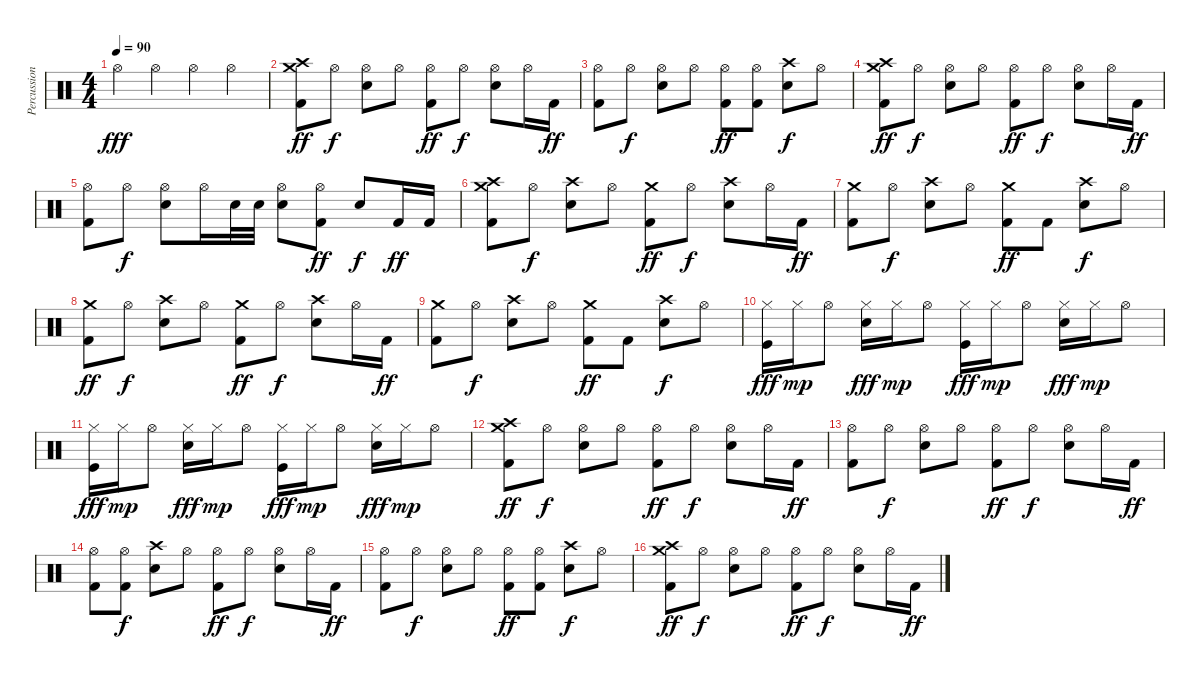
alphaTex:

\track ("Percussion" "Percussion") {instrument percussion}
\staff {score}
\articulation defaults
\ts (4 4)
\tempo 90
\clef neutral
\ks c "Hi-Hat (open)".4{dy fff} "Hi-Hat (open)".4 "Hi-Hat (open)".4 "Hi-Hat (open)".4
|
("Crash medium (hit)" "Crash high (hit)" "Kick (hit) 2").8{dy ff} "Hi-Hat (open)".8{dy f} ("Hi-Hat (open)" "Electric Snare (hit)").8 "Hi-Hat (open)".8 ("Hi-Hat (open)" "Kick (hit) 2").8{dy ff} "Hi-Hat (open)".8{dy f} ("Hi-Hat (open)" "Electric Snare (hit)").8 "Hi-Hat (open)".16 "Kick (hit) 2".16{dy ff} |
("Hi-Hat (open)" "Kick (hit) 2").8 "Hi-Hat (open)".8{dy f} ("Hi-Hat (open)" "Electric Snare (hit)").8 "Hi-Hat (open)".8 ("Hi-Hat (open)" "Kick (hit) 2").8{dy ff} ("Hi-Hat (open)" "Kick (hit) 2").8 ("Crash high (hit)" "Electric Snare (hit)").8{dy f} "Hi-Hat (open)".8 |
("Crash medium (hit)" "Crash high (hit)" "Kick (hit) 2").8{dy ff} "Hi-Hat (open)".8{dy f} ("Hi-Hat (open)" "Electric Snare (hit)").8 "Hi-Hat (open)".8 ("Hi-Hat (open)" "Kick (hit) 2").8{dy ff} "Hi-Hat (open)".8{dy f} ("Hi-Hat (open)" "Electric Snare (hit)").8 "Hi-Hat (open)".16 "Kick (hit) 2".16{dy ff} |
("Hi-Hat (open)" "Kick (hit) 2").8 "Hi-Hat (open)".8{dy f} ("Hi-Hat (open)" "Electric Snare (hit)").8 "Hi-Hat (open)".16 "Electric Snare (hit)".32 "Electric Snare (hit)".32 ("Hi-Hat (open)" "Electric Snare (hit)").8 ("Hi-Hat (open)" "Kick (hit) 2").8{dy ff} "Electric Snare (hit)".8{dy f} "Kick (hit) 2".16{dy ff} "Kick (hit) 2".16 |
("Crash medium (hit)" "Crash high (hit)" "Kick (hit) 2").8 "Hi-Hat (open)".8{dy f} ("Crash high (hit)" "Electric Snare (hit)").8 "Hi-Hat (open)".8 ("Crash medium (hit)" "Kick (hit) 2").8{dy ff} "Hi-Hat (open)".8{dy f} ("Crash high (hit)" "Electric Snare (hit)").8 "Hi-Hat (open)".16 "Kick (hit) 2".16{dy ff} |
("Crash medium (hit)" "Kick (hit) 2").8 "Hi-Hat (open)".8{dy f} ("Crash high (hit)" "Electric Snare (hit)").8 "Hi-Hat (open)".8 ("Crash medium (hit)" "Kick (hit) 2").8{dy ff} "Kick (hit) 2".8 ("Crash high (hit)" "Electric Snare (hit)").8{dy f} "Hi-Hat (open)".8 |
("Crash medium (hit)" "Kick (hit) 2").8{dy ff} "Hi-Hat (open)".8{dy f} ("Crash high (hit)" "Electric Snare (hit)").8 "Hi-Hat (open)".8 ("Crash medium (hit)" "Kick (hit) 2").8{dy ff} "Hi-Hat (open)".8{dy f} ("Crash high (hit)" "Electric Snare (hit)").8 "Hi-Hat (open)".16 "Kick (hit) 2".16{dy ff} |
("Crash medium (hit)" "Kick (hit) 2").8 "Hi-Hat (open)".8{dy f} ("Crash high (hit)" "Electric Snare (hit)").8 "Hi-Hat (open)".8 ("Crash medium (hit)" "Kick (hit) 2").8{dy ff} "Kick (hit) 2".8 ("Crash high (hit)" "Electric Snare (hit)").8{dy f} "Hi-Hat (open)".8 |
("Hi-Hat (closed)" "Kick (hit)").16{dy fff} "Hi-Hat (closed)".16{dy mp} "Hi-Hat (open)".8 ("Hi-Hat (closed)" "Electric Snare (hit)").16{dy fff} "Hi-Hat (closed)".16{dy mp} "Hi-Hat (open)".8 ("Hi-Hat (closed)" "Kick (hit)").16{dy fff} "Hi-Hat (closed)".16{dy mp} "Hi-Hat (open)".8 ("Hi-Hat (closed)" "Electric Snare (hit)").16{dy fff} "Hi-Hat (closed)".16{dy mp} "Hi-Hat (open)".8 |
("Hi-Hat (closed)" "Kick (hit)").16{dy fff} "Hi-Hat (closed)".16{dy mp} "Hi-Hat (open)".8 ("Hi-Hat (closed)" "Electric Snare (hit)").16{dy fff} "Hi-Hat (closed)".16{dy mp} "Hi-Hat (open)".8 ("Hi-Hat (closed)" "Kick (hit)").16{dy fff} "Hi-Hat (closed)".16{dy mp} "Hi-Hat (open)".8 ("Hi-Hat (closed)" "Electric Snare (hit)").16{dy fff} "Hi-Hat (closed)".16{dy mp} "Hi-Hat (open)".8 |
("Crash medium (hit)" "Crash high (hit)" "Kick (hit) 2").8{dy ff} "Hi-Hat (open)".8{dy f} ("Hi-Hat (open)" "Electric Snare (hit)").8 "Hi-Hat (open)".8 ("Hi-Hat (open)" "Kick (hit) 2").8{dy ff} "Hi-Hat (open)".8{dy f} ("Hi-Hat (open)" "Electric Snare (hit)").8 "Hi-Hat (open)".16 "Kick (hit) 2".16{dy ff} |
("Hi-Hat (open)" "Kick (hit) 2").8 "Hi-Hat (open)".8{dy f} ("Hi-Hat (open)" "Electric Snare (hit)").8 "Hi-Hat (open)".8 ("Hi-Hat (open)" "Kick (hit) 2").8{dy ff} "Hi-Hat (open)".8{dy f} ("Hi-Hat (open)" "Electric Snare (hit)").8 "Hi-Hat (open)".16 "Kick (hit) 2".16{dy ff} |
("Hi-Hat (open)" "Kick (hit) 2").8 ("Hi-Hat (open)" "Kick (hit) 2").8{dy f} ("Crash high (hit)" "Electric Snare (hit)").8 "Hi-Hat (open)".8 ("Hi-Hat (open)" "Kick (hit) 2").8{dy ff} "Hi-Hat (open)".8{dy f} ("Hi-Hat (open)" "Electric Snare (hit)").8 "Hi-Hat (open)".16 "Kick (hit) 2".16{dy ff} |
("Hi-Hat (open)" "Kick (hit) 2").8 "Hi-Hat (open)".8{dy f} ("Hi-Hat (open)" "Electric Snare (hit)").8 "Hi-Hat (open)".8 ("Hi-Hat (open)" "Kick (hit) 2").8{dy ff} ("Hi-Hat (open)" "Kick (hit) 2").8 ("Crash high (hit)" "Electric Snare (hit)").8{dy f} "Hi-Hat (open)".8 |
("Crash medium (hit)" "Crash high (hit)" "Kick (hit) 2").8{dy ff} "Hi-Hat (open)".8{dy f} ("Hi-Hat (open)" "Electric Snare (hit)").8 "Hi-Hat (open)".8 ("Hi-Hat (open)" "Kick (hit) 2").8{dy ff} "Hi-Hat (open)".8{dy f} ("Hi-Hat (open)" "Electric Snare (hit)").8 "Hi-Hat (open)".16 "Kick (hit) 2".16{dy ff}
